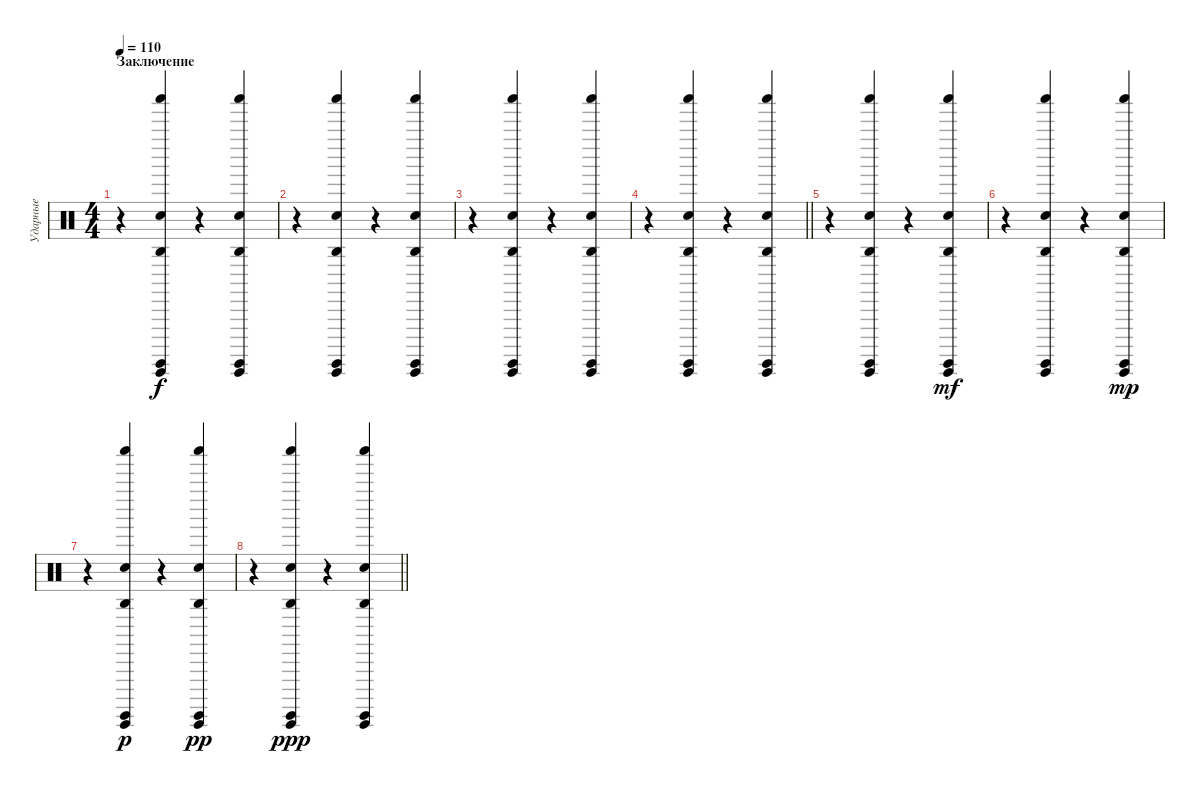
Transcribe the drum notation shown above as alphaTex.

\track ("Ударные" "Ударные") {instrument percussion}
\staff {score}
\articulation defaults
\ts (4 4)
\section ("" "Заключение")
\tempo 110
\clef neutral
\ks c
r.4{dy f} ("Agogo high (hit)" "Hand Clap (hit)" "Guiro (hit)" "Shaker (hit)" "Surdo (hit)").4 r.4 ("Agogo high (hit)" "Hand Clap (hit)" "Guiro (hit)" "Shaker (hit)" "Surdo (hit)").4 |
r.4 ("Agogo high (hit)" "Hand Clap (hit)" "Guiro (hit)" "Shaker (hit)" "Surdo (hit)").4 r.4 ("Agogo high (hit)" "Hand Clap (hit)" "Guiro (hit)" "Shaker (hit)" "Surdo (hit)").4 |
r.4 ("Agogo high (hit)" "Hand Clap (hit)" "Guiro (hit)" "Shaker (hit)" "Surdo (hit)").4 r.4 ("Agogo high (hit)" "Hand Clap (hit)" "Guiro (hit)" "Shaker (hit)" "Surdo (hit)").4 |
\barLineRight lightlight
r.4 ("Agogo high (hit)" "Hand Clap (hit)" "Guiro (hit)" "Shaker (hit)" "Surdo (hit)").4 r.4 ("Agogo high (hit)" "Hand Clap (hit)" "Guiro (hit)" "Shaker (hit)" "Surdo (hit)").4 |
r.4 ("Agogo high (hit)" "Hand Clap (hit)" "Guiro (hit)" "Shaker (hit)" "Surdo (hit)").4 r.4 ("Agogo high (hit)" "Hand Clap (hit)" "Guiro (hit)" "Shaker (hit)" "Surdo (hit)").4{dy mf} |
r.4 ("Agogo high (hit)" "Hand Clap (hit)" "Guiro (hit)" "Shaker (hit)" "Surdo (hit)").4 r.4 ("Agogo high (hit)" "Hand Clap (hit)" "Guiro (hit)" "Shaker (hit)" "Surdo (hit)").4{dy mp} |
r.4 ("Agogo high (hit)" "Hand Clap (hit)" "Guiro (hit)" "Shaker (hit)" "Surdo (hit)").4{dy p} r.4 ("Agogo high (hit)" "Hand Clap (hit)" "Guiro (hit)" "Shaker (hit)" "Surdo (hit)").4{dy pp} |
\barLineRight lightlight
r.4 ("Agogo high (hit)" "Hand Clap (hit)" "Guiro (hit)" "Shaker (hit)" "Surdo (hit)").4{dy ppp} r.4 ("Agogo high (hit)" "Hand Clap (hit)" "Guiro (hit)" "Shaker (hit)" "Surdo (hit)").4
